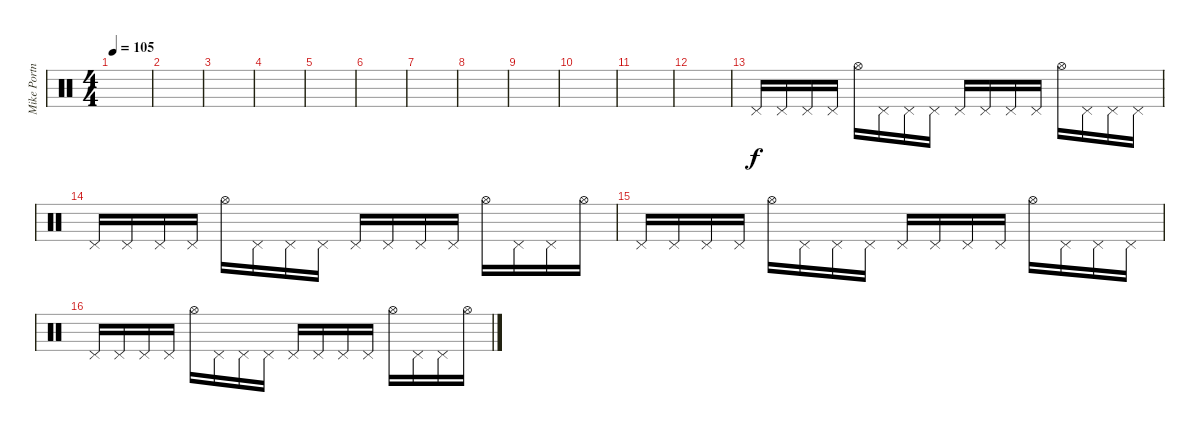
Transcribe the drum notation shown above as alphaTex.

\track ("Mike Portnoy" "Mike Portn") {instrument percussion}
\staff {score}
\articulation defaults
\ts (4 4)
\tempo 105
\clef neutral
\ks c
|
|
|
|
|
|
|
|
|
|
|
|
"Pedal Hi-Hat (hit)".16 "Pedal Hi-Hat (hit)".16 "Pedal Hi-Hat (hit)".16 "Pedal Hi-Hat (hit)".16 "Hi-Hat (open)".16 "Pedal Hi-Hat (hit)".16 "Pedal Hi-Hat (hit)".16 "Pedal Hi-Hat (hit)".16 "Pedal Hi-Hat (hit)".16 "Pedal Hi-Hat (hit)".16 "Pedal Hi-Hat (hit)".16 "Pedal Hi-Hat (hit)".16 "Hi-Hat (open)".16 "Pedal Hi-Hat (hit)".16 "Pedal Hi-Hat (hit)".16 "Pedal Hi-Hat (hit)".16 |
"Pedal Hi-Hat (hit)".16 "Pedal Hi-Hat (hit)".16 "Pedal Hi-Hat (hit)".16 "Pedal Hi-Hat (hit)".16 "Hi-Hat (open)".16 "Pedal Hi-Hat (hit)".16 "Pedal Hi-Hat (hit)".16 "Pedal Hi-Hat (hit)".16 "Pedal Hi-Hat (hit)".16 "Pedal Hi-Hat (hit)".16 "Pedal Hi-Hat (hit)".16 "Pedal Hi-Hat (hit)".16 "Hi-Hat (open)".16 "Pedal Hi-Hat (hit)".16 "Pedal Hi-Hat (hit)".16 "Hi-Hat (open)".16 |
"Pedal Hi-Hat (hit)".16 "Pedal Hi-Hat (hit)".16 "Pedal Hi-Hat (hit)".16 "Pedal Hi-Hat (hit)".16 "Hi-Hat (open)".16 "Pedal Hi-Hat (hit)".16 "Pedal Hi-Hat (hit)".16 "Pedal Hi-Hat (hit)".16 "Pedal Hi-Hat (hit)".16 "Pedal Hi-Hat (hit)".16 "Pedal Hi-Hat (hit)".16 "Pedal Hi-Hat (hit)".16 "Hi-Hat (open)".16 "Pedal Hi-Hat (hit)".16 "Pedal Hi-Hat (hit)".16 "Pedal Hi-Hat (hit)".16 |
"Pedal Hi-Hat (hit)".16 "Pedal Hi-Hat (hit)".16 "Pedal Hi-Hat (hit)".16 "Pedal Hi-Hat (hit)".16 "Hi-Hat (open)".16 "Pedal Hi-Hat (hit)".16 "Pedal Hi-Hat (hit)".16 "Pedal Hi-Hat (hit)".16 "Pedal Hi-Hat (hit)".16 "Pedal Hi-Hat (hit)".16 "Pedal Hi-Hat (hit)".16 "Pedal Hi-Hat (hit)".16 "Hi-Hat (open)".16 "Pedal Hi-Hat (hit)".16 "Pedal Hi-Hat (hit)".16 "Hi-Hat (open)".16
